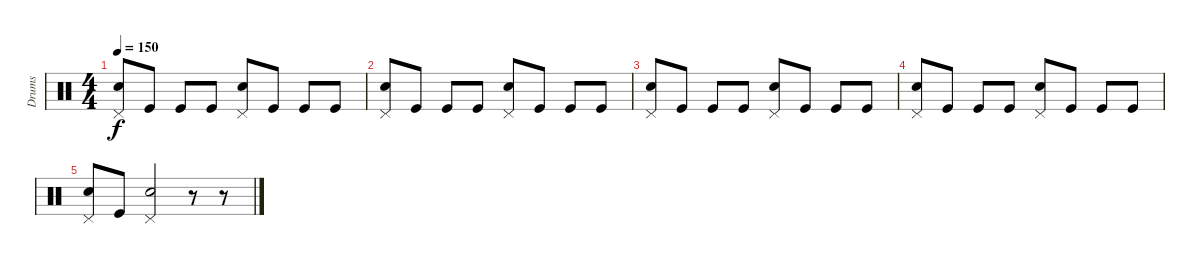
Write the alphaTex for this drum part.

\track ("Drums" "Drums") {instrument percussion}
\staff {score}
\articulation defaults
\ts (4 4)
\tempo 150
\clef neutral
\ks c
("Snare (hit) 2" "Pedal Hi-Hat (hit)").8{dy f} "Kick (hit)".8 "Kick (hit)".8 "Kick (hit)".8 ("Snare (hit) 2" "Pedal Hi-Hat (hit)").8 "Kick (hit)".8 "Kick (hit)".8 "Kick (hit)".8 |
("Snare (hit) 2" "Pedal Hi-Hat (hit)").8 "Kick (hit)".8 "Kick (hit)".8 "Kick (hit)".8 ("Snare (hit) 2" "Pedal Hi-Hat (hit)").8 "Kick (hit)".8 "Kick (hit)".8 "Kick (hit)".8 |
("Snare (hit) 2" "Pedal Hi-Hat (hit)").8 "Kick (hit)".8 "Kick (hit)".8 "Kick (hit)".8 ("Snare (hit) 2" "Pedal Hi-Hat (hit)").8 "Kick (hit)".8 "Kick (hit)".8 "Kick (hit)".8 |
("Snare (hit) 2" "Pedal Hi-Hat (hit)").8 "Kick (hit)".8 "Kick (hit)".8 "Kick (hit)".8 ("Snare (hit) 2" "Pedal Hi-Hat (hit)").8 "Kick (hit)".8 "Kick (hit)".8 "Kick (hit)".8 |
("Snare (hit) 2" "Pedal Hi-Hat (hit)").8 "Kick (hit)".8 ("Snare (hit) 2" "Pedal Hi-Hat (hit)").2 r.8 r.8
